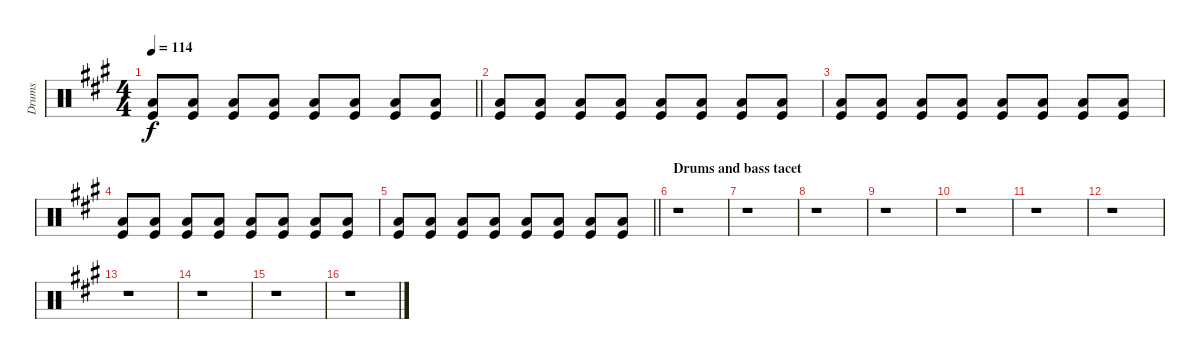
\track ("Drums" "Drums") {instrument percussion}
\staff {score}
\articulation defaults
\ts (4 4)
\tempo 114
\clef neutral
\barLineRight lightlight
\ks f#minor
("Kick (hit)" "Low Floor Tom (hit)").8{dy f} ("Kick (hit)" "Low Floor Tom (hit)").8 ("Kick (hit)" "Low Floor Tom (hit)").8 ("Kick (hit)" "Low Floor Tom (hit)").8 ("Kick (hit)" "Low Floor Tom (hit)").8 ("Kick (hit)" "Low Floor Tom (hit)").8 ("Kick (hit)" "Low Floor Tom (hit)").8 ("Kick (hit)" "Low Floor Tom (hit)").8 |
("Kick (hit)" "Low Floor Tom (hit)").8 ("Kick (hit)" "Low Floor Tom (hit)").8 ("Kick (hit)" "Low Floor Tom (hit)").8 ("Kick (hit)" "Low Floor Tom (hit)").8 ("Kick (hit)" "Low Floor Tom (hit)").8 ("Kick (hit)" "Low Floor Tom (hit)").8 ("Kick (hit)" "Low Floor Tom (hit)").8 ("Kick (hit)" "Low Floor Tom (hit)").8 |
("Kick (hit)" "Low Floor Tom (hit)").8 ("Kick (hit)" "Low Floor Tom (hit)").8 ("Kick (hit)" "Low Floor Tom (hit)").8 ("Kick (hit)" "Low Floor Tom (hit)").8 ("Kick (hit)" "Low Floor Tom (hit)").8 ("Kick (hit)" "Low Floor Tom (hit)").8 ("Kick (hit)" "Low Floor Tom (hit)").8 ("Kick (hit)" "Low Floor Tom (hit)").8 |
("Kick (hit)" "Low Floor Tom (hit)").8 ("Kick (hit)" "Low Floor Tom (hit)").8 ("Kick (hit)" "Low Floor Tom (hit)").8 ("Kick (hit)" "Low Floor Tom (hit)").8 ("Kick (hit)" "Low Floor Tom (hit)").8 ("Kick (hit)" "Low Floor Tom (hit)").8 ("Kick (hit)" "Low Floor Tom (hit)").8 ("Kick (hit)" "Low Floor Tom (hit)").8 |
\barLineRight lightlight
("Kick (hit)" "Low Floor Tom (hit)").8 ("Kick (hit)" "Low Floor Tom (hit)").8 ("Kick (hit)" "Low Floor Tom (hit)").8 ("Kick (hit)" "Low Floor Tom (hit)").8 ("Kick (hit)" "Low Floor Tom (hit)").8 ("Kick (hit)" "Low Floor Tom (hit)").8 ("Kick (hit)" "Low Floor Tom (hit)").8 ("Kick (hit)" "Low Floor Tom (hit)").8 |
\section ("" "Drums and bass tacet")
r.1 |
r.1 |
r.1 |
r.1 |
r.1 |
r.1 |
r.1 |
r.1 |
r.1 |
r.1 |
r.1
